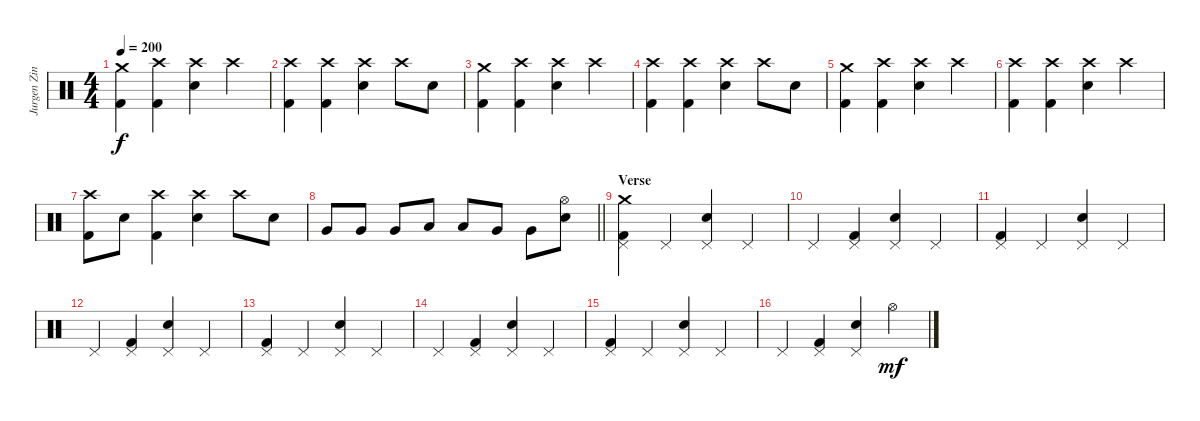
\track ("Jurgen Zink" "Jurgen Zin") {instrument percussion}
\staff {score}
\articulation defaults
\ts (4 4)
\tempo 200
\clef neutral
\ks c
("Crash medium (hit)" "Kick (hit) 2").4{dy f} ("Crash high (hit)" "Kick (hit) 2").4 ("Crash high (hit)" "Electric Snare (hit)").4 "Crash high (hit)".4 |
("Crash high (hit)" "Kick (hit) 2").4 ("Crash high (hit)" "Kick (hit) 2").4 ("Crash high (hit)" "Electric Snare (hit)").4 "Crash high (hit)".8 "Electric Snare (hit)".8 |
("Crash medium (hit)" "Kick (hit) 2").4 ("Crash high (hit)" "Kick (hit) 2").4 ("Crash high (hit)" "Electric Snare (hit)").4 "Crash high (hit)".4 |
("Crash high (hit)" "Kick (hit) 2").4 ("Crash high (hit)" "Kick (hit) 2").4 ("Crash high (hit)" "Electric Snare (hit)").4 "Crash high (hit)".8 "Electric Snare (hit)".8 |
("Crash medium (hit)" "Kick (hit) 2").4 ("Crash high (hit)" "Kick (hit) 2").4 ("Crash high (hit)" "Electric Snare (hit)").4 "Crash high (hit)".4 |
("Crash high (hit)" "Kick (hit) 2").4 ("Crash high (hit)" "Kick (hit) 2").4 ("Crash high (hit)" "Electric Snare (hit)").4 "Crash high (hit)".4 |
("Crash high (hit)" "Kick (hit) 2").8 "Electric Snare (hit)".8 ("Crash high (hit)" "Kick (hit) 2").4 ("Crash high (hit)" "Electric Snare (hit)").4 "Crash high (hit)".8 "Electric Snare (hit)".8 |
\barLineRight lightlight "Very Low Tom (hit)".8 "Very Low Tom (hit)".8 "Very Low Tom (hit)".8 "Low Floor Tom (hit)".8 "Low Floor Tom (hit)".8 "Very Low Tom (hit)".8 "Very Low Tom (hit)".8
("Hi-Hat (open)" "Electric Snare (hit)").8 |
\section ("" "Verse")
("Crash medium (hit)" "Pedal Hi-Hat (hit)" "Kick (hit) 2").4 "Pedal Hi-Hat (hit)".4 ("Pedal Hi-Hat (hit)" "Electric Snare (hit)").4 "Pedal Hi-Hat (hit)".4 |
"Pedal Hi-Hat (hit)".4 ("Pedal Hi-Hat (hit)" "Kick (hit) 2").4 ("Pedal Hi-Hat (hit)" "Electric Snare (hit)").4 "Pedal Hi-Hat (hit)".4 |
("Pedal Hi-Hat (hit)" "Kick (hit) 2").4 "Pedal Hi-Hat (hit)".4 ("Pedal Hi-Hat (hit)" "Electric Snare (hit)").4 "Pedal Hi-Hat (hit)".4 |
"Pedal Hi-Hat (hit)".4 ("Pedal Hi-Hat (hit)" "Kick (hit) 2").4 ("Pedal Hi-Hat (hit)" "Electric Snare (hit)").4 "Pedal Hi-Hat (hit)".4 |
("Pedal Hi-Hat (hit)" "Kick (hit) 2").4 "Pedal Hi-Hat (hit)".4 ("Pedal Hi-Hat (hit)" "Electric Snare (hit)").4 "Pedal Hi-Hat (hit)".4 |
"Pedal Hi-Hat (hit)".4 ("Pedal Hi-Hat (hit)" "Kick (hit) 2").4 ("Pedal Hi-Hat (hit)" "Electric Snare (hit)").4 "Pedal Hi-Hat (hit)".4 |
("Pedal Hi-Hat (hit)" "Kick (hit) 2").4 "Pedal Hi-Hat (hit)".4 ("Pedal Hi-Hat (hit)" "Electric Snare (hit)").4 "Pedal Hi-Hat (hit)".4 |
"Pedal Hi-Hat (hit)".4 ("Pedal Hi-Hat (hit)" "Kick (hit) 2").4 ("Pedal Hi-Hat (hit)" "Electric Snare (hit)").4 "Hi-Hat (open)".4{dy mf}
